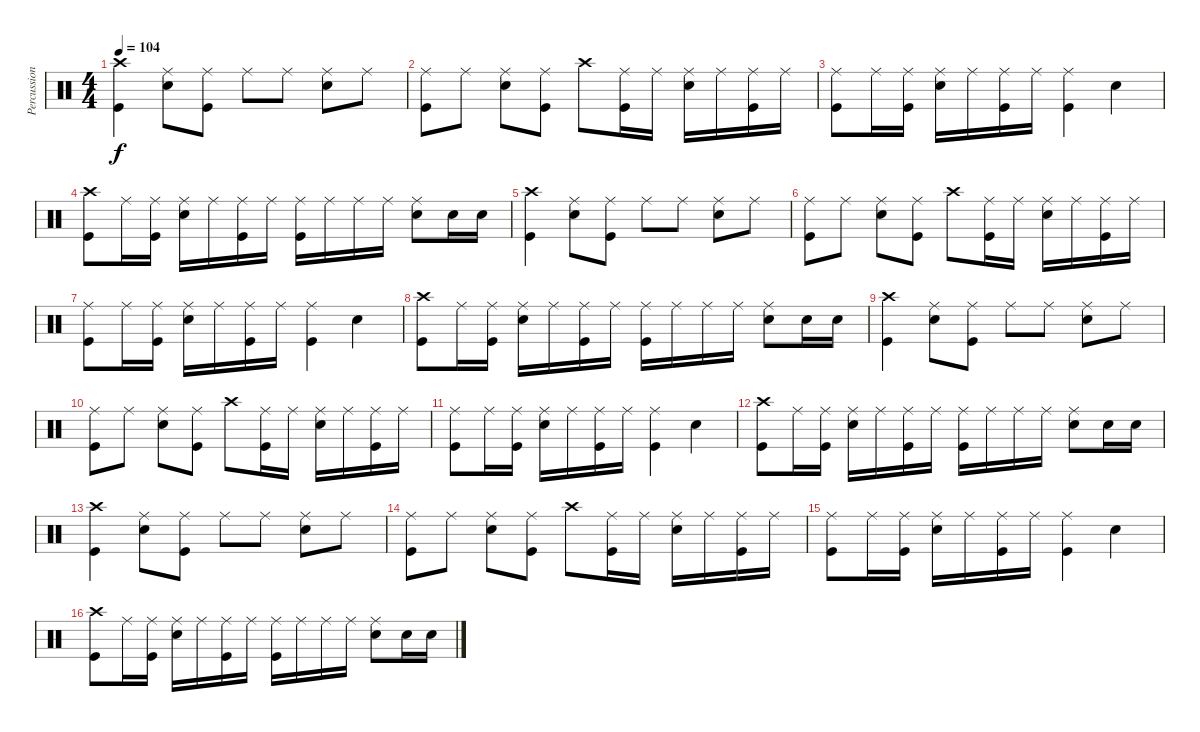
\track ("Percussion" "Percussion") {instrument percussion}
\staff {score}
\articulation defaults
\ts (4 4)
\tempo 104
\clef neutral
\ks c
("Crash high (hit)" "Kick (hit)").4{dy f} ("Ride (middle)" "Snare (hit) 2").8 ("Ride (middle)" "Kick (hit)").8 "Ride (middle)".8 "Ride (middle)".8 ("Ride (middle)" "Snare (hit) 2").8 "Ride (middle)".8 |
("Ride (middle)" "Kick (hit)").8 "Ride (middle)".8 ("Ride (middle)" "Snare (hit) 2").8 ("Ride (middle)" "Kick (hit)").8 "Crash high (hit)".8 ("Ride (middle)" "Kick (hit)").16 "Ride (middle)".16 ("Ride (middle)" "Snare (hit) 2").16 "Ride (middle)".16 ("Ride (middle)" "Kick (hit)").16 "Ride (middle)".16 |
("Ride (middle)" "Kick (hit)").8 "Ride (middle)".16 ("Ride (middle)" "Kick (hit)").16 ("Ride (middle)" "Snare (hit) 2").16 "Ride (middle)".16 ("Ride (middle)" "Kick (hit)").16 "Ride (middle)".16 ("Ride (middle)" "Kick (hit)").4 "Snare (hit) 2".4 |
("Crash high (hit)" "Kick (hit)").8 "Ride (middle)".16 ("Ride (middle)" "Kick (hit)").16 ("Ride (middle)" "Snare (hit) 2").16 "Ride (middle)".16 ("Ride (middle)" "Kick (hit)").16 "Ride (middle)".16 ("Ride (middle)" "Kick (hit)").16 "Ride (middle)".16 "Ride (middle)".16 "Ride (middle)".16 ("Ride (middle)" "Snare (hit) 2").8 "Snare (hit) 2".16 "Snare (hit) 2".16 |
("Crash high (hit)" "Kick (hit)").4 ("Ride (middle)" "Snare (hit) 2").8 ("Ride (middle)" "Kick (hit)").8 "Ride (middle)".8 "Ride (middle)".8 ("Ride (middle)" "Snare (hit) 2").8 "Ride (middle)".8 |
("Ride (middle)" "Kick (hit)").8 "Ride (middle)".8 ("Ride (middle)" "Snare (hit) 2").8 ("Ride (middle)" "Kick (hit)").8 "Crash high (hit)".8 ("Ride (middle)" "Kick (hit)").16 "Ride (middle)".16 ("Ride (middle)" "Snare (hit) 2").16 "Ride (middle)".16 ("Ride (middle)" "Kick (hit)").16 "Ride (middle)".16 |
("Ride (middle)" "Kick (hit)").8 "Ride (middle)".16 ("Ride (middle)" "Kick (hit)").16 ("Ride (middle)" "Snare (hit) 2").16 "Ride (middle)".16 ("Ride (middle)" "Kick (hit)").16 "Ride (middle)".16 ("Ride (middle)" "Kick (hit)").4 "Snare (hit) 2".4 |
("Crash high (hit)" "Kick (hit)").8 "Ride (middle)".16 ("Ride (middle)" "Kick (hit)").16 ("Ride (middle)" "Snare (hit) 2").16 "Ride (middle)".16 ("Ride (middle)" "Kick (hit)").16 "Ride (middle)".16 ("Ride (middle)" "Kick (hit)").16 "Ride (middle)".16 "Ride (middle)".16 "Ride (middle)".16 ("Ride (middle)" "Snare (hit) 2").8 "Snare (hit) 2".16 "Snare (hit) 2".16 |
("Crash high (hit)" "Kick (hit)").4 ("Ride (middle)" "Snare (hit) 2").8 ("Ride (middle)" "Kick (hit)").8 "Ride (middle)".8 "Ride (middle)".8 ("Ride (middle)" "Snare (hit) 2").8 "Ride (middle)".8 |
("Ride (middle)" "Kick (hit)").8 "Ride (middle)".8 ("Ride (middle)" "Snare (hit) 2").8 ("Ride (middle)" "Kick (hit)").8 "Crash high (hit)".8 ("Ride (middle)" "Kick (hit)").16 "Ride (middle)".16 ("Ride (middle)" "Snare (hit) 2").16 "Ride (middle)".16 ("Ride (middle)" "Kick (hit)").16 "Ride (middle)".16 |
("Ride (middle)" "Kick (hit)").8 "Ride (middle)".16 ("Ride (middle)" "Kick (hit)").16 ("Ride (middle)" "Snare (hit) 2").16 "Ride (middle)".16 ("Ride (middle)" "Kick (hit)").16 "Ride (middle)".16 ("Ride (middle)" "Kick (hit)").4 "Snare (hit) 2".4 |
("Crash high (hit)" "Kick (hit)").8 "Ride (middle)".16 ("Ride (middle)" "Kick (hit)").16 ("Ride (middle)" "Snare (hit) 2").16 "Ride (middle)".16 ("Ride (middle)" "Kick (hit)").16 "Ride (middle)".16 ("Ride (middle)" "Kick (hit)").16 "Ride (middle)".16 "Ride (middle)".16 "Ride (middle)".16 ("Ride (middle)" "Snare (hit) 2").8 "Snare (hit) 2".16 "Snare (hit) 2".16 |
("Crash high (hit)" "Kick (hit)").4 ("Ride (middle)" "Snare (hit) 2").8 ("Ride (middle)" "Kick (hit)").8 "Ride (middle)".8 "Ride (middle)".8 ("Ride (middle)" "Snare (hit) 2").8 "Ride (middle)".8 |
("Ride (middle)" "Kick (hit)").8 "Ride (middle)".8 ("Ride (middle)" "Snare (hit) 2").8 ("Ride (middle)" "Kick (hit)").8 "Crash high (hit)".8 ("Ride (middle)" "Kick (hit)").16 "Ride (middle)".16 ("Ride (middle)" "Snare (hit) 2").16 "Ride (middle)".16 ("Ride (middle)" "Kick (hit)").16 "Ride (middle)".16 |
("Ride (middle)" "Kick (hit)").8 "Ride (middle)".16 ("Ride (middle)" "Kick (hit)").16 ("Ride (middle)" "Snare (hit) 2").16 "Ride (middle)".16 ("Ride (middle)" "Kick (hit)").16 "Ride (middle)".16 ("Ride (middle)" "Kick (hit)").4 "Snare (hit) 2".4 |
("Crash high (hit)" "Kick (hit)").8 "Ride (middle)".16 ("Ride (middle)" "Kick (hit)").16 ("Ride (middle)" "Snare (hit) 2").16 "Ride (middle)".16 ("Ride (middle)" "Kick (hit)").16 "Ride (middle)".16 ("Ride (middle)" "Kick (hit)").16 "Ride (middle)".16 "Ride (middle)".16 "Ride (middle)".16 ("Ride (middle)" "Snare (hit) 2").8 "Snare (hit) 2".16 "Snare (hit) 2".16
